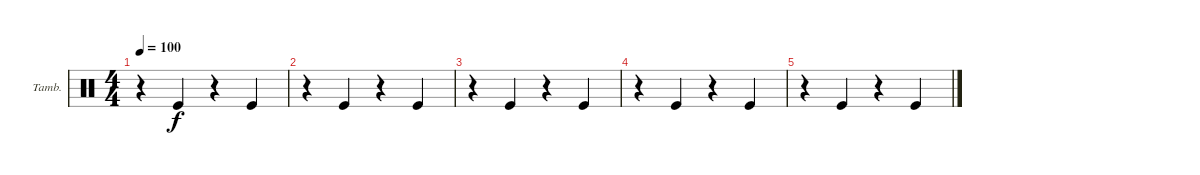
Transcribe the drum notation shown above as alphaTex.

\defaultSystemsLayout 4
\bracketExtendMode nobrackets
\firstSystemTrackNameOrientation horizontal
\otherSystemsTrackNameOrientation horizontal
\track ("Tambourine" "Tamb.") {instrument percussion}
\staff {score}
\articulation defaults
\ts (4 4)
\tempo 100
\clef neutral
\ks c
r.4{dy f} "Kick (hit)".4 r.4 "Kick (hit)".4 |
r.4 "Kick (hit)".4 r.4 "Kick (hit)".4 |
r.4 "Kick (hit)".4 r.4 "Kick (hit)".4 |
r.4 "Kick (hit)".4 r.4 "Kick (hit)".4 |
r.4 "Kick (hit)".4 r.4 "Kick (hit)".4
